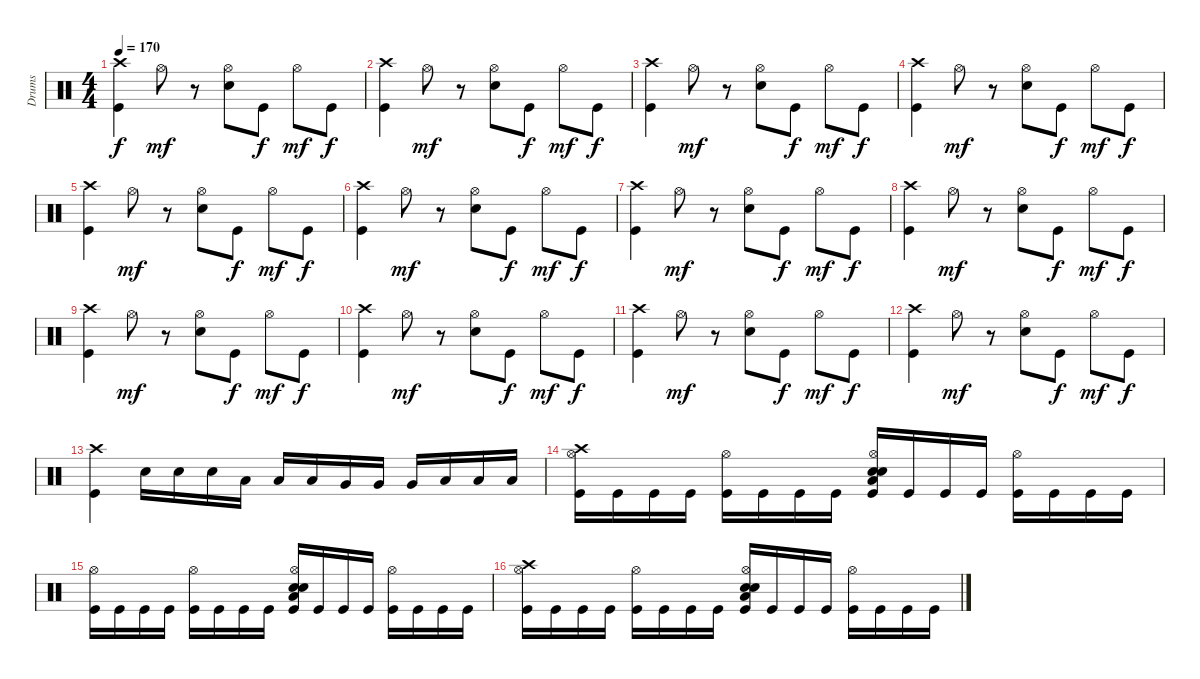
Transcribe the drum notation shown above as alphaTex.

\track ("Drums" "Drums") {instrument percussion}
\staff {score}
\articulation defaults
\ts (4 4)
\tempo 170
\clef neutral
\ks c
("Kick (hit)" "Crash high (hit)").4{dy f} "Hi-Hat (open)".8{dy mf} r.8 ("Electric Snare (hit)" "Hi-Hat (open)").8 "Kick (hit)".8{dy f} "Hi-Hat (open)".8{dy mf} "Kick (hit)".8{dy f} |
("Kick (hit)" "Crash high (hit)").4 "Hi-Hat (open)".8{dy mf} r.8 ("Electric Snare (hit)" "Hi-Hat (open)").8 "Kick (hit)".8{dy f} "Hi-Hat (open)".8{dy mf} "Kick (hit)".8{dy f} |
("Kick (hit)" "Crash high (hit)").4 "Hi-Hat (open)".8{dy mf} r.8 ("Electric Snare (hit)" "Hi-Hat (open)").8 "Kick (hit)".8{dy f} "Hi-Hat (open)".8{dy mf} "Kick (hit)".8{dy f} |
("Kick (hit)" "Crash high (hit)").4 "Hi-Hat (open)".8{dy mf} r.8 ("Electric Snare (hit)" "Hi-Hat (open)").8 "Kick (hit)".8{dy f} "Hi-Hat (open)".8{dy mf} "Kick (hit)".8{dy f} |
("Kick (hit)" "Crash high (hit)").4 "Hi-Hat (open)".8{dy mf} r.8 ("Electric Snare (hit)" "Hi-Hat (open)").8 "Kick (hit)".8{dy f} "Hi-Hat (open)".8{dy mf} "Kick (hit)".8{dy f} |
("Kick (hit)" "Crash high (hit)").4 "Hi-Hat (open)".8{dy mf} r.8 ("Electric Snare (hit)" "Hi-Hat (open)").8 "Kick (hit)".8{dy f} "Hi-Hat (open)".8{dy mf} "Kick (hit)".8{dy f} |
("Kick (hit)" "Crash high (hit)").4 "Hi-Hat (open)".8{dy mf} r.8 ("Electric Snare (hit)" "Hi-Hat (open)").8 "Kick (hit)".8{dy f} "Hi-Hat (open)".8{dy mf} "Kick (hit)".8{dy f} |
("Kick (hit)" "Crash high (hit)").4 "Hi-Hat (open)".8{dy mf} r.8 ("Electric Snare (hit)" "Hi-Hat (open)").8 "Kick (hit)".8{dy f} "Hi-Hat (open)".8{dy mf} "Kick (hit)".8{dy f} |
("Kick (hit)" "Crash high (hit)").4 "Hi-Hat (open)".8{dy mf} r.8 ("Electric Snare (hit)" "Hi-Hat (open)").8 "Kick (hit)".8{dy f} "Hi-Hat (open)".8{dy mf} "Kick (hit)".8{dy f} |
("Kick (hit)" "Crash high (hit)").4 "Hi-Hat (open)".8{dy mf} r.8 ("Electric Snare (hit)" "Hi-Hat (open)").8 "Kick (hit)".8{dy f} "Hi-Hat (open)".8{dy mf} "Kick (hit)".8{dy f} |
("Kick (hit)" "Crash high (hit)").4 "Hi-Hat (open)".8{dy mf} r.8 ("Electric Snare (hit)" "Hi-Hat (open)").8 "Kick (hit)".8{dy f} "Hi-Hat (open)".8{dy mf} "Kick (hit)".8{dy f} |
("Kick (hit)" "Crash high (hit)").4 "Hi-Hat (open)".8{dy mf} r.8 ("Electric Snare (hit)" "Hi-Hat (open)").8 "Kick (hit)".8{dy f} "Hi-Hat (open)".8{dy mf} "Kick (hit)".8{dy f} |
("Kick (hit)" "Crash high (hit)").4 "Electric Snare (hit)".16 "Electric Snare (hit)".16 "Electric Snare (hit)".16 "Low Tom (hit)".16 "Low Tom (hit)".16 "Low Tom (hit)".16 "Very Low Tom (hit)".16 "Very Low Tom (hit)".16 "Very Low Tom (hit)".16 "Low Floor Tom (hit)".16 "Low Floor Tom (hit)".16 "Low Floor Tom (hit)".16 |
("Crash high (hit)" "Hi-Hat (open)" "Kick (hit)").16 "Kick (hit)".16 "Kick (hit)".16 "Kick (hit)".16 ("Hi-Hat (open)" "Kick (hit)").16 "Kick (hit)".16 "Kick (hit)".16 "Kick (hit)".16 ("Low Floor Tom (hit)" "Hi-Hat (open)" "Electric Snare (hit)" "Electric Snare (hit)" "Kick (hit)").16 "Kick (hit)".16 "Kick (hit)".16 "Kick (hit)".16 ("Hi-Hat (open)" "Kick (hit)").16 "Kick (hit)".16 "Kick (hit)".16 "Kick (hit)".16 |
("Hi-Hat (open)" "Kick (hit)").16 "Kick (hit)".16 "Kick (hit)".16 "Kick (hit)".16 ("Hi-Hat (open)" "Kick (hit)").16 "Kick (hit)".16 "Kick (hit)".16 "Kick (hit)".16 ("Low Floor Tom (hit)" "Hi-Hat (open)" "Electric Snare (hit)" "Electric Snare (hit)" "Kick (hit)").16 "Kick (hit)".16 "Kick (hit)".16 "Kick (hit)".16 ("Hi-Hat (open)" "Kick (hit)").16 "Kick (hit)".16 "Kick (hit)".16 "Kick (hit)".16 |
("Crash high (hit)" "Hi-Hat (open)" "Kick (hit)").16 "Kick (hit)".16 "Kick (hit)".16 "Kick (hit)".16 ("Hi-Hat (open)" "Kick (hit)").16 "Kick (hit)".16 "Kick (hit)".16 "Kick (hit)".16 ("Low Floor Tom (hit)" "Hi-Hat (open)" "Electric Snare (hit)" "Electric Snare (hit)" "Kick (hit)").16 "Kick (hit)".16 "Kick (hit)".16 "Kick (hit)".16 ("Hi-Hat (open)" "Kick (hit)").16 "Kick (hit)".16 "Kick (hit)".16 "Kick (hit)".16
